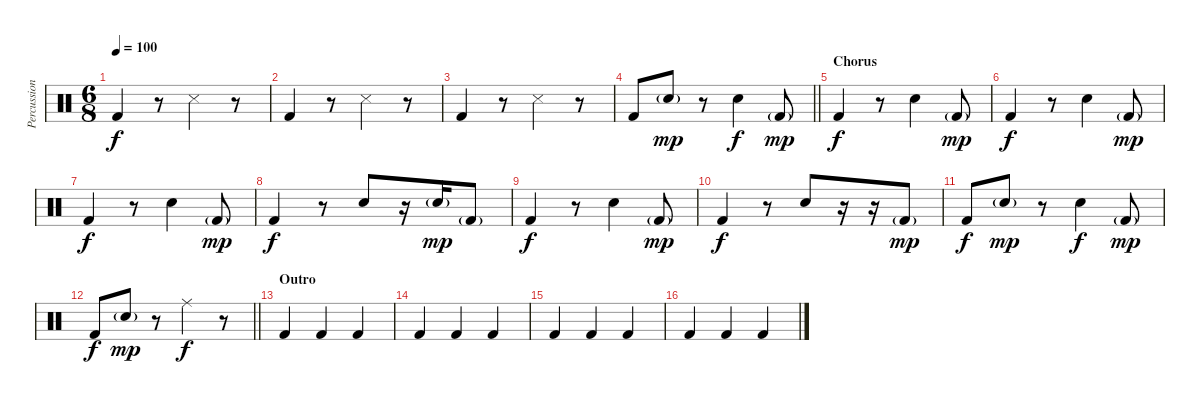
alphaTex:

\track ("Percussion" "Percussion") {instrument percussion}
\staff {score}
\articulation defaults
\ts (6 8)
\tempo 100
\clef neutral
\ks c "Kick (hit) 2".4{dy f}
r.8 "Snare (side stick) 3".4 r.8 |
"Kick (hit) 2".4 r.8 "Snare (side stick) 3".4 r.8 |
"Kick (hit) 2".4 r.8 "Snare (side stick) 3".4 r.8 |
\barLineRight lightlight "Kick (hit) 2".8 "Snare (hit) 2"{g}.8{dy mp}
r.8 "Snare (hit) 2".4{dy f} "Kick (hit) 2"{g}.8{dy mp} |
\section ("" "Chorus")
"Kick (hit) 2".4{dy f} r.8 "Snare (hit) 2".4 "Kick (hit) 2"{g}.8{dy mp} |
"Kick (hit) 2".4{dy f} r.8 "Snare (hit) 2".4 "Kick (hit) 2"{g}.8{dy mp} |
"Kick (hit) 2".4{dy f} r.8 "Snare (hit) 2".4 "Kick (hit) 2"{g}.8{dy mp} |
"Kick (hit) 2".4{dy f} r.8 "Snare (hit) 2".8 r.16 "Snare (hit) 2"{g}.16{dy mp} "Kick (hit) 2"{g}.8 |
"Kick (hit) 2".4{dy f} r.8 "Snare (hit) 2".4 "Kick (hit) 2"{g}.8{dy mp} |
"Kick (hit) 2".4{dy f} r.8 "Snare (hit) 2".8 r.16 r.16 "Kick (hit) 2"{g}.8{dy mp} |
"Kick (hit) 2".8{dy f} "Snare (hit) 2"{g}.8{dy mp} r.8 "Snare (hit) 2".4{dy f} "Kick (hit) 2"{g}.8{dy mp} |
\barLineRight lightlight "Kick (hit) 2".8{dy f} "Snare (hit) 2"{g}.8{dy mp}
r.8 "Ride (middle)".4{dy f} r.8{volume 1} |
\section ("" "Outro")
"Kick (hit) 2".4 "Kick (hit) 2".4 "Kick (hit) 2".4 |
"Kick (hit) 2".4 "Kick (hit) 2".4 "Kick (hit) 2".4 |
"Kick (hit) 2".4 "Kick (hit) 2".4 "Kick (hit) 2".4 |
"Kick (hit) 2".4 "Kick (hit) 2".4 "Kick (hit) 2".4
